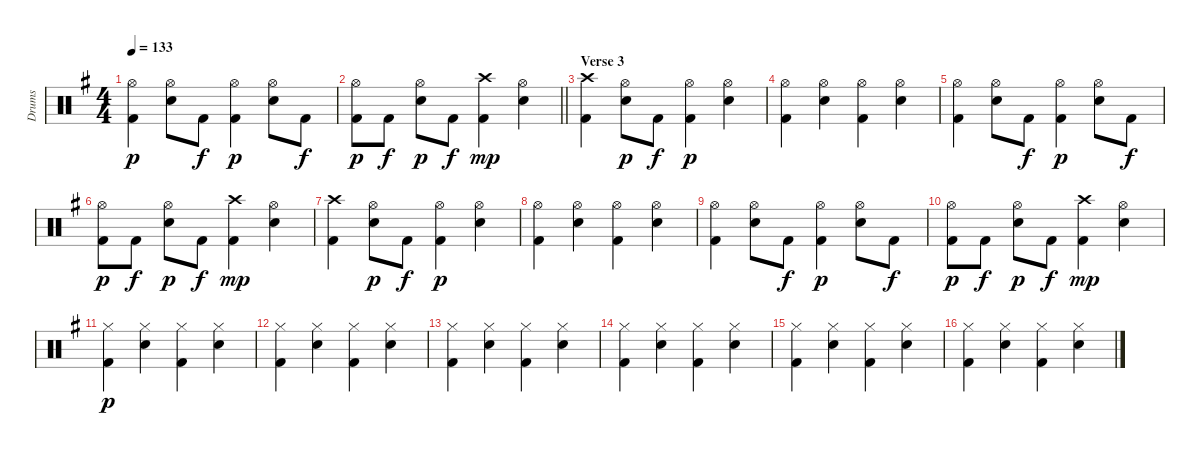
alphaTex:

\track ("Drums" "Drums") {instrument percussion}
\staff {score}
\articulation defaults
\ts (4 4)
\tempo 133
\clef neutral
\ks g
("Kick (hit) 2" "Hi-Hat (open)").4{dy p} ("Electric Snare (hit)" "Hi-Hat (open)").8 "Kick (hit) 2".8{dy f} ("Kick (hit) 2" "Hi-Hat (open)").4{dy p} ("Electric Snare (hit)" "Hi-Hat (open)").8 "Kick (hit) 2".8{dy f} |
\barLineRight lightlight
("Kick (hit) 2" "Hi-Hat (open)").8{dy p} "Kick (hit) 2".8{dy f} ("Electric Snare (hit)" "Hi-Hat (open)").8{dy p} "Kick (hit) 2".8{dy f} ("Kick (hit) 2" "Crash high (hit)").4{dy mp} ("Electric Snare (hit)" "Hi-Hat (open)").4 |
\section ("" "Verse 3")
("Crash high (hit)" "Kick (hit) 2").4 ("Electric Snare (hit)" "Hi-Hat (open)").8{dy p} "Kick (hit) 2".8{dy f} ("Kick (hit) 2" "Hi-Hat (open)").4{dy p} ("Electric Snare (hit)" "Hi-Hat (open)").4 |
("Kick (hit) 2" "Hi-Hat (open)").4 ("Electric Snare (hit)" "Hi-Hat (open)").4 ("Kick (hit) 2" "Hi-Hat (open)").4 ("Electric Snare (hit)" "Hi-Hat (open)").4 |
("Kick (hit) 2" "Hi-Hat (open)").4 ("Electric Snare (hit)" "Hi-Hat (open)").8 "Kick (hit) 2".8{dy f} ("Kick (hit) 2" "Hi-Hat (open)").4{dy p} ("Electric Snare (hit)" "Hi-Hat (open)").8 "Kick (hit) 2".8{dy f} |
("Kick (hit) 2" "Hi-Hat (open)").8{dy p} "Kick (hit) 2".8{dy f} ("Electric Snare (hit)" "Hi-Hat (open)").8{dy p} "Kick (hit) 2".8{dy f} ("Kick (hit) 2" "Crash high (hit)").4{dy mp} ("Electric Snare (hit)" "Hi-Hat (open)").4 |
("Crash high (hit)" "Kick (hit) 2").4 ("Electric Snare (hit)" "Hi-Hat (open)").8{dy p} "Kick (hit) 2".8{dy f} ("Kick (hit) 2" "Hi-Hat (open)").4{dy p} ("Electric Snare (hit)" "Hi-Hat (open)").4 |
("Kick (hit) 2" "Hi-Hat (open)").4 ("Electric Snare (hit)" "Hi-Hat (open)").4 ("Kick (hit) 2" "Hi-Hat (open)").4 ("Electric Snare (hit)" "Hi-Hat (open)").4 |
("Kick (hit) 2" "Hi-Hat (open)").4 ("Electric Snare (hit)" "Hi-Hat (open)").8 "Kick (hit) 2".8{dy f} ("Kick (hit) 2" "Hi-Hat (open)").4{dy p} ("Electric Snare (hit)" "Hi-Hat (open)").8 "Kick (hit) 2".8{dy f} |
("Kick (hit) 2" "Hi-Hat (open)").8{dy p} "Kick (hit) 2".8{dy f} ("Electric Snare (hit)" "Hi-Hat (open)").8{dy p} "Kick (hit) 2".8{dy f} ("Kick (hit) 2" "Crash high (hit)").4{dy mp} ("Electric Snare (hit)" "Hi-Hat (open)").4 |
("Hi-Hat (closed)" "Kick (hit) 2").4{dy p} ("Hi-Hat (closed)" "Electric Snare (hit)").4 ("Hi-Hat (closed)" "Kick (hit) 2").4 ("Hi-Hat (closed)" "Electric Snare (hit)").4 |
("Hi-Hat (closed)" "Kick (hit) 2").4 ("Hi-Hat (closed)" "Electric Snare (hit)").4 ("Hi-Hat (closed)" "Kick (hit) 2").4 ("Hi-Hat (closed)" "Electric Snare (hit)").4 |
("Hi-Hat (closed)" "Kick (hit) 2").4 ("Hi-Hat (closed)" "Electric Snare (hit)").4 ("Hi-Hat (closed)" "Kick (hit) 2").4 ("Hi-Hat (closed)" "Electric Snare (hit)").4 |
("Hi-Hat (closed)" "Kick (hit) 2").4 ("Hi-Hat (closed)" "Electric Snare (hit)").4 ("Hi-Hat (closed)" "Kick (hit) 2").4 ("Hi-Hat (closed)" "Electric Snare (hit)").4 |
("Hi-Hat (closed)" "Kick (hit) 2").4 ("Hi-Hat (closed)" "Electric Snare (hit)").4 ("Hi-Hat (closed)" "Kick (hit) 2").4 ("Hi-Hat (closed)" "Electric Snare (hit)").4 |
("Hi-Hat (closed)" "Kick (hit) 2").4 ("Hi-Hat (closed)" "Electric Snare (hit)").4 ("Hi-Hat (closed)" "Kick (hit) 2").4 ("Hi-Hat (closed)" "Electric Snare (hit)").4
